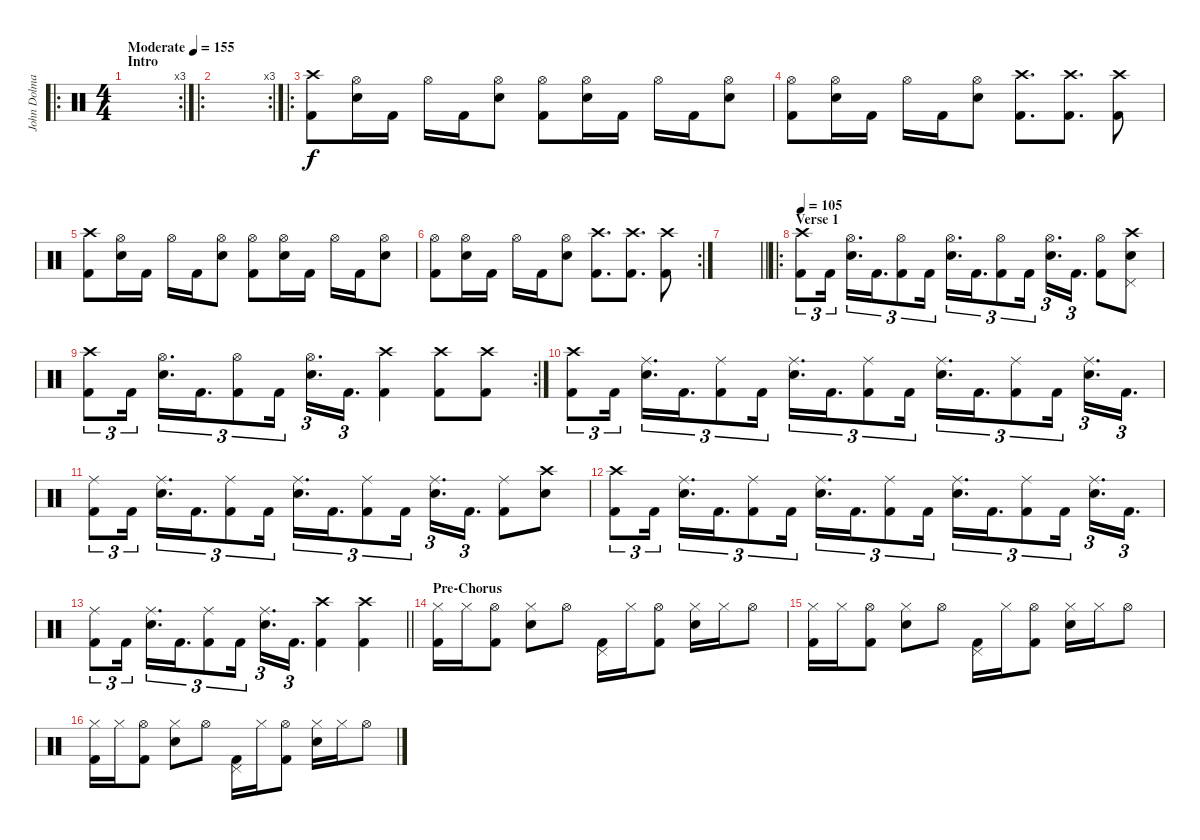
\track ("John Dolmayan" "John Dolma") {instrument percussion}
\staff {score}
\articulation defaults
\ro
\rc 3
\ts (4 4)
\section ("" "Intro")
\tempo (155 "Moderate")
\clef neutral
\ks c
|
\ro
\rc 3
|
\ro
("Kick (hit) 2" "Crash high (hit)").8 ("Hi-Hat (open)" "Electric Snare (hit)").16 "Kick (hit) 2".16 "Hi-Hat (open)".16 "Kick (hit) 2".16 ("Hi-Hat (open)" "Electric Snare (hit)").8 ("Kick (hit) 2" "Hi-Hat (open)").8 ("Hi-Hat (open)" "Electric Snare (hit)").16 "Kick (hit) 2".16 "Hi-Hat (open)".16 "Kick (hit) 2".16 ("Hi-Hat (open)" "Electric Snare (hit)").8 |
("Kick (hit) 2" "Hi-Hat (open)").8 ("Hi-Hat (open)" "Electric Snare (hit)").16 "Kick (hit) 2".16 "Hi-Hat (open)".16 "Kick (hit) 2".16 ("Hi-Hat (open)" "Electric Snare (hit)").8 ("Kick (hit) 2" "Crash high (hit)").8{d} ("Kick (hit) 2" "Crash high (hit)").8{d} ("Kick (hit) 2" "Crash high (hit)").8 |
("Kick (hit) 2" "Crash high (hit)").8 ("Hi-Hat (open)" "Electric Snare (hit)").16 "Kick (hit) 2".16 "Hi-Hat (open)".16 "Kick (hit) 2".16 ("Hi-Hat (open)" "Electric Snare (hit)").8 ("Kick (hit) 2" "Hi-Hat (open)").8 ("Hi-Hat (open)" "Electric Snare (hit)").16 "Kick (hit) 2".16 "Hi-Hat (open)".16 "Kick (hit) 2".16 ("Hi-Hat (open)" "Electric Snare (hit)").8 |
\rc 2
("Kick (hit) 2" "Hi-Hat (open)").8 ("Hi-Hat (open)" "Electric Snare (hit)").16 "Kick (hit) 2".16 "Hi-Hat (open)".16 "Kick (hit) 2".16 ("Hi-Hat (open)" "Electric Snare (hit)").8 ("Kick (hit) 2" "Crash high (hit)").8{d} ("Kick (hit) 2" "Crash high (hit)").8{d} ("Kick (hit) 2" "Crash high (hit)").8 |
\barLineRight lightlight
|
\ro
\section ("" "Verse 1")
\tempo 105
("Kick (hit) 2" "Crash high (hit)").8{tu (3 2)} "Kick (hit) 2".16{tu (3 2) beam splitsecondary} ("Hi-Hat (open)" "Electric Snare (hit)").16{d tu (3 2)} "Kick (hit) 2".16{d tu (3 2)} ("Kick (hit) 2" "Hi-Hat (open)").8{tu (3 2)} "Kick (hit) 2".16{tu (3 2) beam splitsecondary} ("Hi-Hat (open)" "Electric Snare (hit)").16{d tu (3 2)} "Kick (hit) 2".16{d tu (3 2)} ("Kick (hit) 2" "Hi-Hat (open)").8{tu (3 2)} "Kick (hit) 2".16{tu (3 2) beam splitsecondary} ("Hi-Hat (open)" "Electric Snare (hit)").16{d tu (3 2)} "Kick (hit) 2".16{d tu (3 2)} ("Kick (hit) 2" "Hi-Hat (open)").8 ("Crash high (hit)" "Electric Snare (hit)" "Pedal Hi-Hat (hit)").8 |
\rc 2
("Kick (hit) 2" "Crash high (hit)").8{tu (3 2)} "Kick (hit) 2".16{tu (3 2) beam splitsecondary} ("Hi-Hat (open)" "Electric Snare (hit)").16{d tu (3 2)} "Kick (hit) 2".16{d tu (3 2)} ("Kick (hit) 2" "Hi-Hat (open)").8{tu (3 2)} "Kick (hit) 2".16{tu (3 2) beam splitsecondary} ("Hi-Hat (open)" "Electric Snare (hit)").16{d tu (3 2)} "Kick (hit) 2".16{d tu (3 2)} ("Kick (hit) 2" "Crash high (hit)").4 ("Kick (hit) 2" "Crash high (hit)").8 ("Kick (hit) 2" "Crash high (hit)").8 |
("Kick (hit) 2" "Crash high (hit)").8{tu (3 2)} "Kick (hit) 2".16{tu (3 2) beam splitsecondary} ("Electric Snare (hit)" "Ride (middle)").16{d tu (3 2)} "Kick (hit) 2".16{d tu (3 2)} ("Kick (hit) 2" "Ride (middle)").8{tu (3 2)} "Kick (hit) 2".16{tu (3 2) beam splitsecondary} ("Electric Snare (hit)" "Ride (middle)").16{d tu (3 2)} "Kick (hit) 2".16{d tu (3 2)} ("Kick (hit) 2" "Ride (middle)").8{tu (3 2)} "Kick (hit) 2".16{tu (3 2) beam splitsecondary} ("Electric Snare (hit)" "Ride (middle)").16{d tu (3 2)} "Kick (hit) 2".16{d tu (3 2)} ("Kick (hit) 2" "Ride (middle)").8{tu (3 2)} "Kick (hit) 2".16{tu (3 2) beam splitsecondary} ("Electric Snare (hit)" "Ride (middle)").16{d tu (3 2)} "Kick (hit) 2".16{d tu (3 2)} |
("Kick (hit) 2" "Ride (middle)").8{tu (3 2)} "Kick (hit) 2".16{tu (3 2) beam splitsecondary} ("Electric Snare (hit)" "Ride (middle)").16{d tu (3 2)} "Kick (hit) 2".16{d tu (3 2)} ("Kick (hit) 2" "Ride (middle)").8{tu (3 2)} "Kick (hit) 2".16{tu (3 2) beam splitsecondary} ("Electric Snare (hit)" "Ride (middle)").16{d tu (3 2)} "Kick (hit) 2".16{d tu (3 2)} ("Kick (hit) 2" "Ride (middle)").8{tu (3 2)} "Kick (hit) 2".16{tu (3 2) beam splitsecondary} ("Electric Snare (hit)" "Ride (middle)").16{d tu (3 2)} "Kick (hit) 2".16{d tu (3 2)} ("Kick (hit) 2" "Ride (middle)").8 ("Crash high (hit)" "Electric Snare (hit)").8 |
("Kick (hit) 2" "Crash high (hit)").8{tu (3 2)} "Kick (hit) 2".16{tu (3 2) beam splitsecondary} ("Electric Snare (hit)" "Ride (middle)").16{d tu (3 2)} "Kick (hit) 2".16{d tu (3 2)} ("Kick (hit) 2" "Ride (middle)").8{tu (3 2)} "Kick (hit) 2".16{tu (3 2) beam splitsecondary} ("Electric Snare (hit)" "Ride (middle)").16{d tu (3 2)} "Kick (hit) 2".16{d tu (3 2)} ("Kick (hit) 2" "Ride (middle)").8{tu (3 2)} "Kick (hit) 2".16{tu (3 2) beam splitsecondary} ("Electric Snare (hit)" "Ride (middle)").16{d tu (3 2)} "Kick (hit) 2".16{d tu (3 2)} ("Kick (hit) 2" "Ride (middle)").8{tu (3 2)} "Kick (hit) 2".16{tu (3 2) beam splitsecondary} ("Electric Snare (hit)" "Ride (middle)").16{d tu (3 2)} "Kick (hit) 2".16{d tu (3 2)} |
\barLineRight lightlight
("Kick (hit) 2" "Ride (middle)").8{tu (3 2)} "Kick (hit) 2".16{tu (3 2) beam splitsecondary} ("Electric Snare (hit)" "Ride (middle)").16{d tu (3 2)} "Kick (hit) 2".16{d tu (3 2)} ("Kick (hit) 2" "Ride (middle)").8{tu (3 2)} "Kick (hit) 2".16{tu (3 2) beam splitsecondary} ("Electric Snare (hit)" "Ride (middle)").16{d tu (3 2)} "Kick (hit) 2".16{d tu (3 2)} ("Kick (hit) 2" "Crash high (hit)").4 ("Kick (hit) 2" "Crash high (hit)").4 |
\section ("" "Pre-Chorus")
("Kick (hit) 2" "Hi-Hat (closed)").16 "Hi-Hat (closed)".16 ("Kick (hit) 2" "Hi-Hat (open)").8 ("Electric Snare (hit)" "Hi-Hat (closed)").8 "Hi-Hat (open)".8 ("Kick (hit) 2" "Pedal Hi-Hat (hit)").16 "Hi-Hat (closed)".16 ("Kick (hit) 2" "Hi-Hat (open)").8 ("Electric Snare (hit)" "Hi-Hat (closed)").16 "Hi-Hat (closed)".16 "Hi-Hat (open)".8 |
("Kick (hit) 2" "Hi-Hat (closed)").16 "Hi-Hat (closed)".16 ("Kick (hit) 2" "Hi-Hat (open)").8 ("Electric Snare (hit)" "Hi-Hat (closed)").8 "Hi-Hat (open)".8 ("Kick (hit) 2" "Pedal Hi-Hat (hit)").16 "Hi-Hat (closed)".16 ("Kick (hit) 2" "Hi-Hat (open)").8 ("Electric Snare (hit)" "Hi-Hat (closed)").16 "Hi-Hat (closed)".16 "Hi-Hat (open)".8 |
("Kick (hit) 2" "Hi-Hat (closed)").16 "Hi-Hat (closed)".16 ("Kick (hit) 2" "Hi-Hat (open)").8 ("Electric Snare (hit)" "Hi-Hat (closed)").8 "Hi-Hat (open)".8 ("Kick (hit) 2" "Pedal Hi-Hat (hit)").16 "Hi-Hat (closed)".16 ("Kick (hit) 2" "Hi-Hat (open)").8 ("Electric Snare (hit)" "Hi-Hat (closed)").16 "Hi-Hat (closed)".16 "Hi-Hat (open)".8
